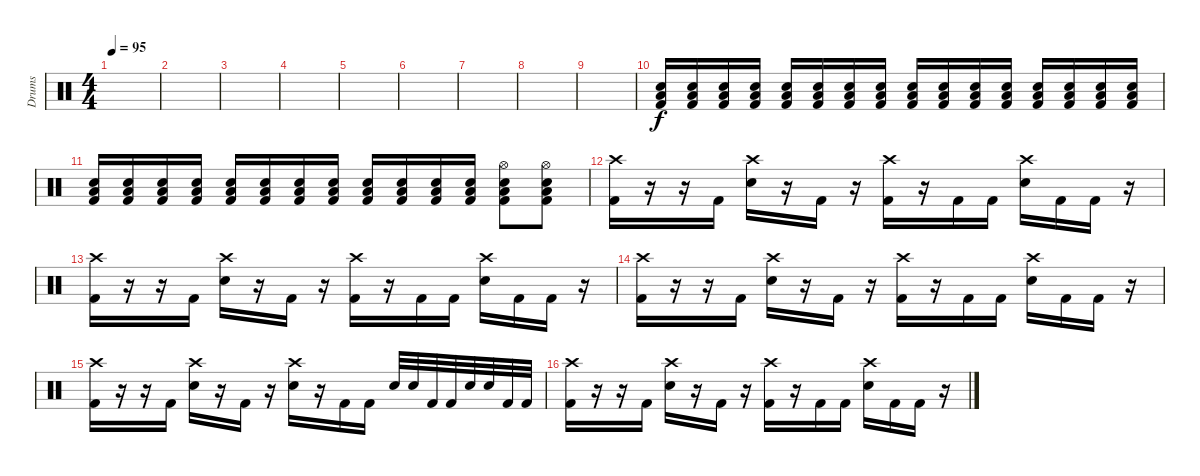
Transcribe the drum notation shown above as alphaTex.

\track ("Drums" "Drums") {instrument percussion}
\staff {score}
\articulation defaults
\ts (4 4)
\tempo 95
\clef neutral
\ks c
|
|
|
|
|
|
|
|
|
("Low Tom (hit)" "Electric Snare (hit)" "Kick (hit) 2").16{volume 3} ("Low Tom (hit)" "Electric Snare (hit)" "Kick (hit) 2").16{volume 16} ("Low Tom (hit)" "Electric Snare (hit)" "Kick (hit) 2").16 ("Low Tom (hit)" "Electric Snare (hit)" "Kick (hit) 2").16 ("Low Tom (hit)" "Electric Snare (hit)" "Kick (hit) 2").16 ("Low Tom (hit)" "Electric Snare (hit)" "Kick (hit) 2").16 ("Low Tom (hit)" "Electric Snare (hit)" "Kick (hit) 2").16 ("Low Tom (hit)" "Electric Snare (hit)" "Kick (hit) 2").16 ("Low Tom (hit)" "Electric Snare (hit)" "Kick (hit) 2").16 ("Low Tom (hit)" "Electric Snare (hit)" "Kick (hit) 2").16 ("Low Tom (hit)" "Electric Snare (hit)" "Kick (hit) 2").16 ("Low Tom (hit)" "Electric Snare (hit)" "Kick (hit) 2").16 ("Low Tom (hit)" "Electric Snare (hit)" "Kick (hit) 2").16 ("Low Tom (hit)" "Electric Snare (hit)" "Kick (hit) 2").16 ("Low Tom (hit)" "Electric Snare (hit)" "Kick (hit) 2").16 ("Low Tom (hit)" "Electric Snare (hit)" "Kick (hit) 2").16 |
("Low Tom (hit)" "Electric Snare (hit)" "Kick (hit) 2").16 ("Low Tom (hit)" "Electric Snare (hit)" "Kick (hit) 2").16 ("Low Tom (hit)" "Electric Snare (hit)" "Kick (hit) 2").16 ("Low Tom (hit)" "Electric Snare (hit)" "Kick (hit) 2").16 ("Low Tom (hit)" "Electric Snare (hit)" "Kick (hit) 2").16 ("Low Tom (hit)" "Electric Snare (hit)" "Kick (hit) 2").16 ("Low Tom (hit)" "Electric Snare (hit)" "Kick (hit) 2").16 ("Low Tom (hit)" "Electric Snare (hit)" "Kick (hit) 2").16 ("Low Tom (hit)" "Electric Snare (hit)" "Kick (hit) 2").16 ("Low Tom (hit)" "Electric Snare (hit)" "Kick (hit) 2").16 ("Low Tom (hit)" "Electric Snare (hit)" "Kick (hit) 2").16 ("Low Tom (hit)" "Electric Snare (hit)" "Kick (hit) 2").16 ("Hi-Hat (open)" "Low Tom (hit)" "Electric Snare (hit)" "Kick (hit) 2").8 ("Hi-Hat (open)" "Low Tom (hit)" "Electric Snare (hit)" "Kick (hit) 2").8 |
("Crash high (hit)" "Kick (hit) 2").16 r.16 r.16 "Kick (hit) 2".16 ("Crash high (hit)" "Electric Snare (hit)").16 r.16 "Kick (hit) 2".16 r.16 ("Crash high (hit)" "Kick (hit) 2").16 r.16 "Kick (hit) 2".16 "Kick (hit) 2".16 ("Crash high (hit)" "Electric Snare (hit)").16 "Kick (hit) 2".16 "Kick (hit) 2".16 r.16 |
("Crash high (hit)" "Kick (hit) 2").16 r.16 r.16 "Kick (hit) 2".16 ("Crash high (hit)" "Electric Snare (hit)").16 r.16 "Kick (hit) 2".16 r.16 ("Crash high (hit)" "Kick (hit) 2").16 r.16 "Kick (hit) 2".16 "Kick (hit) 2".16 ("Crash high (hit)" "Electric Snare (hit)").16 "Kick (hit) 2".16 "Kick (hit) 2".16 r.16 |
("Crash high (hit)" "Kick (hit) 2").16 r.16 r.16 "Kick (hit) 2".16 ("Crash high (hit)" "Electric Snare (hit)").16 r.16 "Kick (hit) 2".16 r.16 ("Crash high (hit)" "Kick (hit) 2").16 r.16 "Kick (hit) 2".16 "Kick (hit) 2".16 ("Crash high (hit)" "Electric Snare (hit)").16 "Kick (hit) 2".16 "Kick (hit) 2".16 r.16 |
("Crash high (hit)" "Kick (hit) 2").16 r.16 r.16 "Kick (hit) 2".16 ("Crash high (hit)" "Electric Snare (hit)").16 r.16 "Kick (hit) 2".16 r.16 ("Crash high (hit)" "Electric Snare (hit)").16 r.16 "Kick (hit) 2".16 "Kick (hit) 2".16 "Electric Snare (hit)".32 "Electric Snare (hit)".32 "Kick (hit) 2".32 "Kick (hit) 2".32 "Electric Snare (hit)".32 "Electric Snare (hit)".32 "Kick (hit) 2".32 "Kick (hit) 2".32 |
("Crash high (hit)" "Kick (hit) 2").16 r.16 r.16 "Kick (hit) 2".16 ("Crash high (hit)" "Electric Snare (hit)").16 r.16 "Kick (hit) 2".16 r.16 ("Crash high (hit)" "Kick (hit) 2").16 r.16 "Kick (hit) 2".16 "Kick (hit) 2".16 ("Crash high (hit)" "Electric Snare (hit)").16 "Kick (hit) 2".16 "Kick (hit) 2".16 r.16
